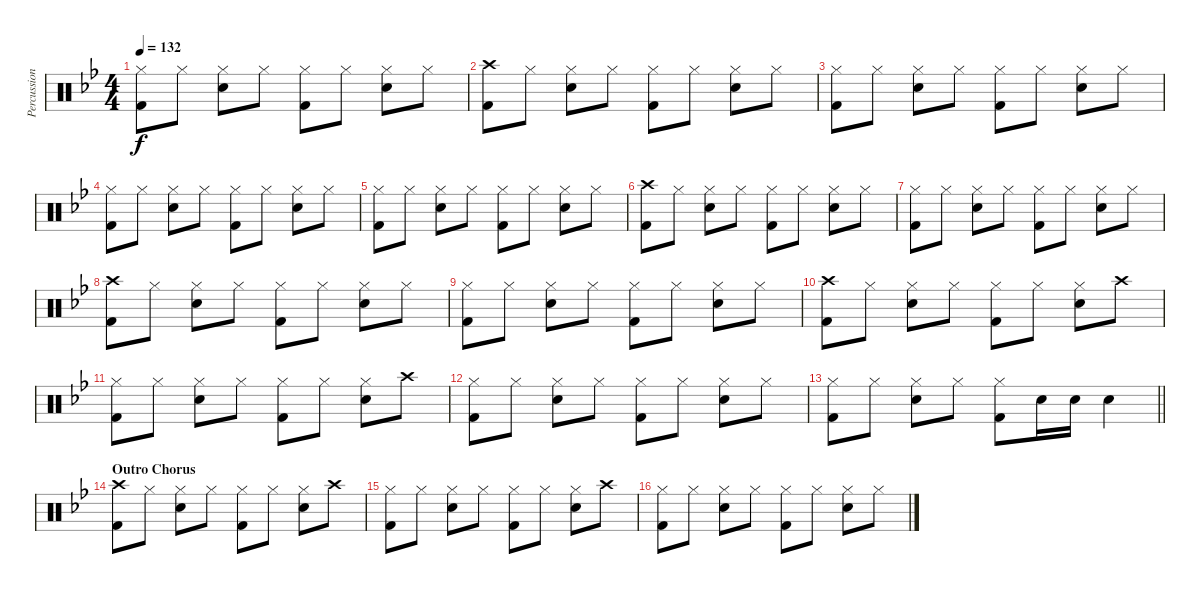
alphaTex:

\track ("Percussion" "Percussion") {instrument percussion}
\staff {score}
\articulation defaults
\ts (4 4)
\tempo 132
\clef neutral
\ks bb
("Hi-Hat (closed)" "Kick (hit) 2").8{dy f} "Hi-Hat (closed)".8 ("Hi-Hat (closed)" "Snare (hit) 2").8 "Hi-Hat (closed)".8 ("Hi-Hat (closed)" "Kick (hit) 2").8 "Hi-Hat (closed)".8 ("Hi-Hat (closed)" "Snare (hit) 2").8 "Hi-Hat (closed)".8 |
("Crash high (hit)" "Kick (hit) 2").8 "Hi-Hat (closed)".8 ("Hi-Hat (closed)" "Snare (hit) 2").8 "Hi-Hat (closed)".8 ("Hi-Hat (closed)" "Kick (hit) 2").8 "Hi-Hat (closed)".8 ("Hi-Hat (closed)" "Snare (hit) 2").8 "Hi-Hat (closed)".8 |
("Hi-Hat (closed)" "Kick (hit) 2").8 "Hi-Hat (closed)".8 ("Hi-Hat (closed)" "Snare (hit) 2").8 "Hi-Hat (closed)".8 ("Hi-Hat (closed)" "Kick (hit) 2").8 "Hi-Hat (closed)".8 ("Hi-Hat (closed)" "Snare (hit) 2").8 "Hi-Hat (closed)".8 |
("Hi-Hat (closed)" "Kick (hit) 2").8 "Hi-Hat (closed)".8 ("Hi-Hat (closed)" "Snare (hit) 2").8 "Hi-Hat (closed)".8 ("Hi-Hat (closed)" "Kick (hit) 2").8 "Hi-Hat (closed)".8 ("Hi-Hat (closed)" "Snare (hit) 2").8 "Hi-Hat (closed)".8 |
("Hi-Hat (closed)" "Kick (hit) 2").8 "Hi-Hat (closed)".8 ("Hi-Hat (closed)" "Snare (hit) 2").8 "Hi-Hat (closed)".8 ("Hi-Hat (closed)" "Kick (hit) 2").8 "Hi-Hat (closed)".8 ("Hi-Hat (closed)" "Snare (hit) 2").8 "Hi-Hat (closed)".8 |
("Crash high (hit)" "Kick (hit) 2").8 "Hi-Hat (closed)".8 ("Hi-Hat (closed)" "Snare (hit) 2").8 "Hi-Hat (closed)".8 ("Hi-Hat (closed)" "Kick (hit) 2").8 "Hi-Hat (closed)".8 ("Hi-Hat (closed)" "Snare (hit) 2").8 "Hi-Hat (closed)".8 |
("Hi-Hat (closed)" "Kick (hit) 2").8 "Hi-Hat (closed)".8 ("Hi-Hat (closed)" "Snare (hit) 2").8 "Hi-Hat (closed)".8 ("Hi-Hat (closed)" "Kick (hit) 2").8 "Hi-Hat (closed)".8 ("Hi-Hat (closed)" "Snare (hit) 2").8 "Hi-Hat (closed)".8 |
("Crash high (hit)" "Kick (hit) 2").8 "Hi-Hat (closed)".8 ("Hi-Hat (closed)" "Snare (hit) 2").8 "Hi-Hat (closed)".8 ("Hi-Hat (closed)" "Kick (hit) 2").8 "Hi-Hat (closed)".8 ("Hi-Hat (closed)" "Snare (hit) 2").8 "Hi-Hat (closed)".8 |
("Hi-Hat (closed)" "Kick (hit) 2").8 "Hi-Hat (closed)".8 ("Hi-Hat (closed)" "Snare (hit) 2").8 "Hi-Hat (closed)".8 ("Hi-Hat (closed)" "Kick (hit) 2").8 "Hi-Hat (closed)".8 ("Hi-Hat (closed)" "Snare (hit) 2").8 "Hi-Hat (closed)".8 |
("Crash high (hit)" "Kick (hit) 2").8 "Hi-Hat (closed)".8 ("Hi-Hat (closed)" "Snare (hit) 2").8 "Hi-Hat (closed)".8 ("Hi-Hat (closed)" "Kick (hit) 2").8 "Hi-Hat (closed)".8 ("Hi-Hat (closed)" "Snare (hit) 2").8 "Crash high (hit)".8 |
("Hi-Hat (closed)" "Kick (hit) 2").8 "Hi-Hat (closed)".8 ("Hi-Hat (closed)" "Snare (hit) 2").8 "Hi-Hat (closed)".8 ("Hi-Hat (closed)" "Kick (hit) 2").8 "Hi-Hat (closed)".8 ("Hi-Hat (closed)" "Snare (hit) 2").8 "Crash high (hit)".8 |
("Hi-Hat (closed)" "Kick (hit) 2").8 "Hi-Hat (closed)".8 ("Hi-Hat (closed)" "Snare (hit) 2").8 "Hi-Hat (closed)".8 ("Hi-Hat (closed)" "Kick (hit) 2").8 "Hi-Hat (closed)".8 ("Hi-Hat (closed)" "Snare (hit) 2").8 "Hi-Hat (closed)".8 |
\barLineRight lightlight
("Hi-Hat (closed)" "Kick (hit) 2").8 "Hi-Hat (closed)".8 ("Hi-Hat (closed)" "Snare (hit) 2").8 "Hi-Hat (closed)".8 ("Hi-Hat (closed)" "Kick (hit) 2").8 "Snare (hit) 2".16 "Snare (hit) 2".16 "Snare (hit) 2".4 |
\section ("" "Outro Chorus")
("Crash high (hit)" "Kick (hit) 2").8 "Hi-Hat (closed)".8 ("Hi-Hat (closed)" "Snare (hit) 2").8 "Hi-Hat (closed)".8 ("Hi-Hat (closed)" "Kick (hit) 2").8 "Hi-Hat (closed)".8 ("Hi-Hat (closed)" "Snare (hit) 2").8 "Crash high (hit)".8 |
("Hi-Hat (closed)" "Kick (hit) 2").8 "Hi-Hat (closed)".8 ("Hi-Hat (closed)" "Snare (hit) 2").8 "Hi-Hat (closed)".8 ("Hi-Hat (closed)" "Kick (hit) 2").8 "Hi-Hat (closed)".8 ("Hi-Hat (closed)" "Snare (hit) 2").8 "Crash high (hit)".8 |
("Hi-Hat (closed)" "Kick (hit) 2").8 "Hi-Hat (closed)".8 ("Hi-Hat (closed)" "Snare (hit) 2").8 "Hi-Hat (closed)".8 ("Hi-Hat (closed)" "Kick (hit) 2").8 "Hi-Hat (closed)".8 ("Hi-Hat (closed)" "Snare (hit) 2").8 "Hi-Hat (closed)".8
